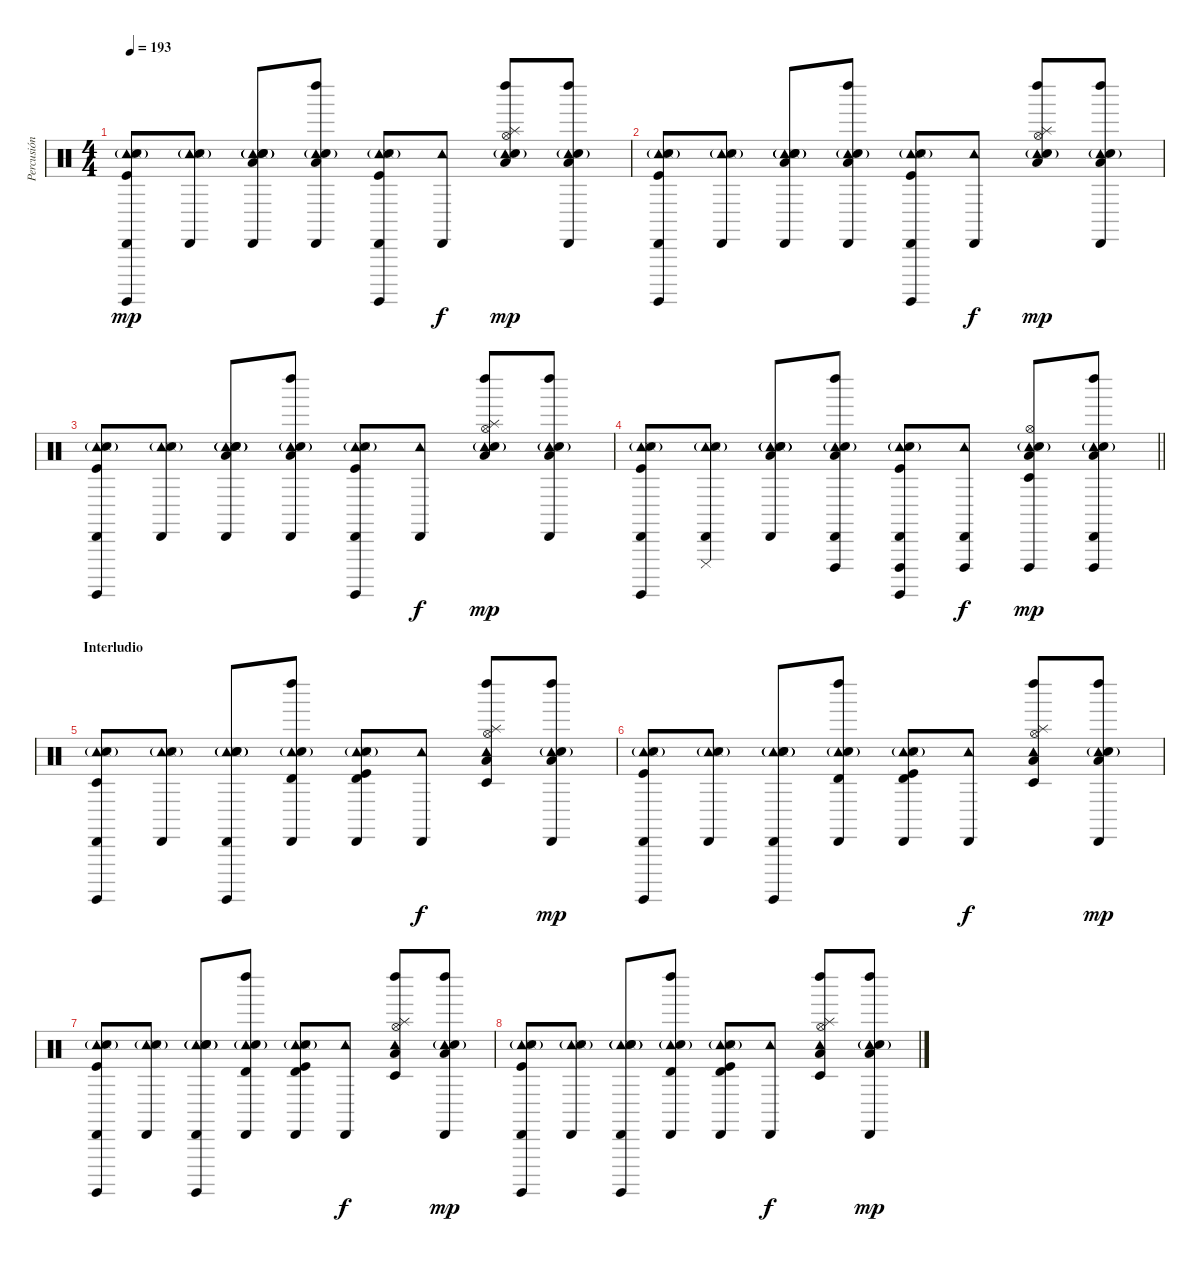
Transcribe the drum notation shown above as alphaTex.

\track ("Percusión" "Percusión") {instrument percussion}
\staff {score}
\articulation defaults
\ts (4 4)
\tempo 193
\clef neutral
\ks c
("Cabasa (hit)" "Tambourine (hit)" "Hand Clap (hit)"{g} "Metronome (hit)" "Surdo (hit)" "Kick (hit)").8{dy mp} ("Cabasa (hit)" "Tambourine (hit)" "Hand Clap (hit)"{g} "Metronome (hit)").8 ("Cabasa (hit)" "Tambourine (hit)" "Hand Clap (hit)"{g} "Metronome (hit)" "Low Tom (hit)" "Electric Snare (hit)"{g}).8 ("Cabasa (hit)" "Tambourine (hit)" "Left Maraca (hit)" "Low Tom (hit)" "Electric Snare (hit)"{g}).8 ("Cabasa (hit)" "Tambourine (hit)" "Hand Clap (hit)"{g} "Metronome (hit)" "Surdo (hit)" "Kick (hit)").8 ("Cabasa (hit)" "Tambourine (hit)").8{dy f} ("Hi-Hat (open)" "Tambourine (hit)" "Left Maraca (hit)" "Splash (hit)" "Low Tom (hit)" "Electric Snare (hit)"{g}).8{dy mp} ("Cabasa (hit)" "Tambourine (hit)" "Left Maraca (hit)" "Low Tom (hit)" "Electric Snare (hit)"{g}).8 |
("Cabasa (hit)" "Tambourine (hit)" "Hand Clap (hit)"{g} "Metronome (hit)" "Surdo (hit)" "Kick (hit)").8 ("Cabasa (hit)" "Tambourine (hit)" "Hand Clap (hit)"{g} "Metronome (hit)").8 ("Cabasa (hit)" "Tambourine (hit)" "Hand Clap (hit)"{g} "Metronome (hit)" "Low Tom (hit)" "Electric Snare (hit)"{g}).8 ("Cabasa (hit)" "Tambourine (hit)" "Left Maraca (hit)" "Low Tom (hit)" "Electric Snare (hit)"{g}).8 ("Cabasa (hit)" "Tambourine (hit)" "Hand Clap (hit)"{g} "Metronome (hit)" "Surdo (hit)" "Kick (hit)").8 ("Cabasa (hit)" "Tambourine (hit)").8{dy f} ("Hi-Hat (open)" "Tambourine (hit)" "Left Maraca (hit)" "Splash (hit)" "Low Tom (hit)" "Electric Snare (hit)"{g}).8{dy mp} ("Cabasa (hit)" "Tambourine (hit)" "Left Maraca (hit)" "Low Tom (hit)" "Electric Snare (hit)"{g}).8 |
("Cabasa (hit)" "Tambourine (hit)" "Hand Clap (hit)"{g} "Metronome (hit)" "Surdo (hit)" "Kick (hit)").8 ("Cabasa (hit)" "Tambourine (hit)" "Hand Clap (hit)"{g} "Metronome (hit)").8 ("Cabasa (hit)" "Tambourine (hit)" "Hand Clap (hit)"{g} "Metronome (hit)" "Low Tom (hit)" "Electric Snare (hit)"{g}).8 ("Cabasa (hit)" "Tambourine (hit)" "Left Maraca (hit)" "Low Tom (hit)" "Electric Snare (hit)"{g}).8 ("Cabasa (hit)" "Tambourine (hit)" "Hand Clap (hit)"{g} "Metronome (hit)" "Surdo (hit)" "Kick (hit)").8 ("Cabasa (hit)" "Tambourine (hit)").8{dy f} ("Hi-Hat (open)" "Tambourine (hit)" "Left Maraca (hit)" "Splash (hit)" "Low Tom (hit)" "Electric Snare (hit)"{g}).8{dy mp} ("Cabasa (hit)" "Tambourine (hit)" "Left Maraca (hit)" "Low Tom (hit)" "Electric Snare (hit)"{g}).8 |
\barLineRight lightlight
("Cabasa (hit)" "Tambourine (hit)" "Hand Clap (hit)"{g} "Metronome (hit)" "Surdo (hit)" "Kick (hit)").8 ("Cabasa (hit)" "Tambourine (hit)" "Hand Clap (hit)"{g} "Metronome (hit)" "Cuica (mute)").8 ("Cabasa (hit)" "Tambourine (hit)" "Hand Clap (hit)"{g} "Metronome (hit)" "Low Tom (hit)" "Electric Snare (hit)"{g}).8 ("Cabasa (hit)" "Tambourine (hit)" "Left Maraca (hit)" "Cuica (open)" "Low Tom (hit)" "Electric Snare (hit)"{g}).8 ("Cabasa (hit)" "Tambourine (hit)" "Hand Clap (hit)"{g} "Cuica (open)" "Surdo (hit)" "Kick (hit)").8 ("Cabasa (hit)" "Tambourine (hit)" "Cuica (open)").8{dy f} ("Hi-Hat (open)" "Tambourine (hit)" "Timbale low (hit)" "Cuica (open)" "Low Tom (hit)" "Electric Snare (hit)"{g}).8{dy mp} ("Cabasa (hit)" "Tambourine (hit)" "Left Maraca (hit)" "Cuica (open)" "Low Tom (hit)" "Electric Snare (hit)"{g}).8 |
\section ("" "Interludio")
("Cabasa (hit)" "Tambourine (hit)" "Hand Clap (hit)"{g} "Metronome (hit)" "Surdo (hit)" "Timbale low (hit)").8 ("Cabasa (hit)" "Tambourine (hit)" "Hand Clap (hit)"{g} "Metronome (hit)").8 ("Cabasa (hit)" "Tambourine (hit)" "Hand Clap (hit)"{g} "Metronome (hit)" "Surdo (hit)" "Electric Snare (hit)"{g}).8 ("Cabasa (hit)" "Tambourine (hit)" "Left Maraca (hit)" "Timbale high (hit)" "Electric Snare (hit)"{g}).8 ("Cabasa (hit)" "Tambourine (hit)" "Hand Clap (hit)"{g} "Metronome (hit)" "Timbale high (hit)" "Kick (hit)").8 ("Cabasa (hit)" "Tambourine (hit)").8{dy f} ("Hi-Hat (open)" "Tambourine (hit)" "Left Maraca (hit)" "Splash (hit)" "Low Tom (hit)" "Timbale low (hit)").8 ("Cabasa (hit)" "Tambourine (hit)" "Left Maraca (hit)" "Low Tom (hit)" "Electric Snare (hit)"{g}).8{dy mp} |
("Cabasa (hit)" "Tambourine (hit)" "Hand Clap (hit)"{g} "Metronome (hit)" "Surdo (hit)" "Kick (hit)").8 ("Cabasa (hit)" "Tambourine (hit)" "Hand Clap (hit)"{g} "Metronome (hit)").8 ("Cabasa (hit)" "Tambourine (hit)" "Hand Clap (hit)"{g} "Metronome (hit)" "Surdo (hit)" "Electric Snare (hit)"{g}).8 ("Cabasa (hit)" "Tambourine (hit)" "Left Maraca (hit)" "Timbale high (hit)" "Electric Snare (hit)"{g}).8 ("Cabasa (hit)" "Tambourine (hit)" "Hand Clap (hit)"{g} "Metronome (hit)" "Timbale high (hit)" "Kick (hit)").8 ("Cabasa (hit)" "Tambourine (hit)").8{dy f} ("Hi-Hat (open)" "Tambourine (hit)" "Left Maraca (hit)" "Splash (hit)" "Low Tom (hit)" "Timbale low (hit)").8 ("Cabasa (hit)" "Tambourine (hit)" "Left Maraca (hit)" "Low Tom (hit)" "Electric Snare (hit)"{g}).8{dy mp} |
("Cabasa (hit)" "Tambourine (hit)" "Hand Clap (hit)"{g} "Metronome (hit)" "Surdo (hit)" "Kick (hit)").8 ("Cabasa (hit)" "Tambourine (hit)" "Hand Clap (hit)"{g} "Metronome (hit)").8 ("Cabasa (hit)" "Tambourine (hit)" "Hand Clap (hit)"{g} "Metronome (hit)" "Surdo (hit)" "Electric Snare (hit)"{g}).8 ("Cabasa (hit)" "Tambourine (hit)" "Left Maraca (hit)" "Timbale high (hit)" "Electric Snare (hit)"{g}).8 ("Cabasa (hit)" "Tambourine (hit)" "Hand Clap (hit)"{g} "Metronome (hit)" "Timbale high (hit)" "Kick (hit)").8 ("Cabasa (hit)" "Tambourine (hit)").8{dy f} ("Hi-Hat (open)" "Tambourine (hit)" "Left Maraca (hit)" "Splash (hit)" "Low Tom (hit)" "Timbale low (hit)").8 ("Cabasa (hit)" "Tambourine (hit)" "Left Maraca (hit)" "Low Tom (hit)" "Electric Snare (hit)"{g}).8{dy mp} |
("Cabasa (hit)" "Tambourine (hit)" "Hand Clap (hit)"{g} "Metronome (hit)" "Surdo (hit)" "Kick (hit)").8 ("Cabasa (hit)" "Tambourine (hit)" "Hand Clap (hit)"{g} "Metronome (hit)").8 ("Cabasa (hit)" "Tambourine (hit)" "Hand Clap (hit)"{g} "Metronome (hit)" "Surdo (hit)" "Electric Snare (hit)"{g}).8 ("Cabasa (hit)" "Tambourine (hit)" "Left Maraca (hit)" "Timbale high (hit)" "Electric Snare (hit)"{g}).8 ("Cabasa (hit)" "Tambourine (hit)" "Hand Clap (hit)"{g} "Metronome (hit)" "Timbale high (hit)" "Kick (hit)").8 ("Cabasa (hit)" "Tambourine (hit)").8{dy f} ("Hi-Hat (open)" "Tambourine (hit)" "Left Maraca (hit)" "Splash (hit)" "Low Tom (hit)" "Timbale low (hit)").8 ("Cabasa (hit)" "Tambourine (hit)" "Left Maraca (hit)" "Low Tom (hit)" "Electric Snare (hit)"{g}).8{dy mp}
